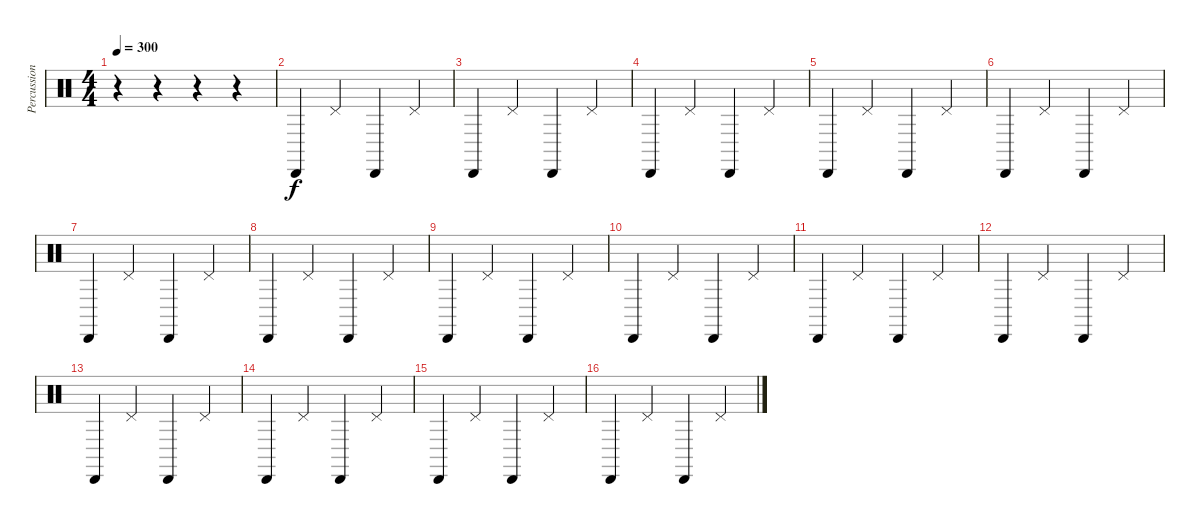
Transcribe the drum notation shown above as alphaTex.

\track ("Percussions" "Percussion") {instrument percussion}
\staff {score}
\articulation defaults
\ts (4 4)
\tempo 300
\clef neutral
\ks c
r.4{dy f} r.4 r.4 r.4 |
"Cabasa (hit)".4 "Pedal Hi-Hat (hit)".4 "Cabasa (hit)".4 "Pedal Hi-Hat (hit)".4 |
"Cabasa (hit)".4 "Pedal Hi-Hat (hit)".4 "Cabasa (hit)".4 "Pedal Hi-Hat (hit)".4 |
"Cabasa (hit)".4 "Pedal Hi-Hat (hit)".4 "Cabasa (hit)".4 "Pedal Hi-Hat (hit)".4 |
"Cabasa (hit)".4 "Pedal Hi-Hat (hit)".4 "Cabasa (hit)".4 "Pedal Hi-Hat (hit)".4 |
"Cabasa (hit)".4 "Pedal Hi-Hat (hit)".4 "Cabasa (hit)".4 "Pedal Hi-Hat (hit)".4 |
"Cabasa (hit)".4 "Pedal Hi-Hat (hit)".4 "Cabasa (hit)".4 "Pedal Hi-Hat (hit)".4 |
"Cabasa (hit)".4 "Pedal Hi-Hat (hit)".4 "Cabasa (hit)".4 "Pedal Hi-Hat (hit)".4 |
"Cabasa (hit)".4 "Pedal Hi-Hat (hit)".4 "Cabasa (hit)".4 "Pedal Hi-Hat (hit)".4 |
"Cabasa (hit)".4 "Pedal Hi-Hat (hit)".4 "Cabasa (hit)".4 "Pedal Hi-Hat (hit)".4 |
"Cabasa (hit)".4 "Pedal Hi-Hat (hit)".4 "Cabasa (hit)".4 "Pedal Hi-Hat (hit)".4 |
"Cabasa (hit)".4 "Pedal Hi-Hat (hit)".4 "Cabasa (hit)".4 "Pedal Hi-Hat (hit)".4 |
"Cabasa (hit)".4 "Pedal Hi-Hat (hit)".4 "Cabasa (hit)".4 "Pedal Hi-Hat (hit)".4 |
"Cabasa (hit)".4 "Pedal Hi-Hat (hit)".4 "Cabasa (hit)".4 "Pedal Hi-Hat (hit)".4 |
"Cabasa (hit)".4 "Pedal Hi-Hat (hit)".4 "Cabasa (hit)".4 "Pedal Hi-Hat (hit)".4 |
"Cabasa (hit)".4 "Pedal Hi-Hat (hit)".4 "Cabasa (hit)".4 "Pedal Hi-Hat (hit)".4
